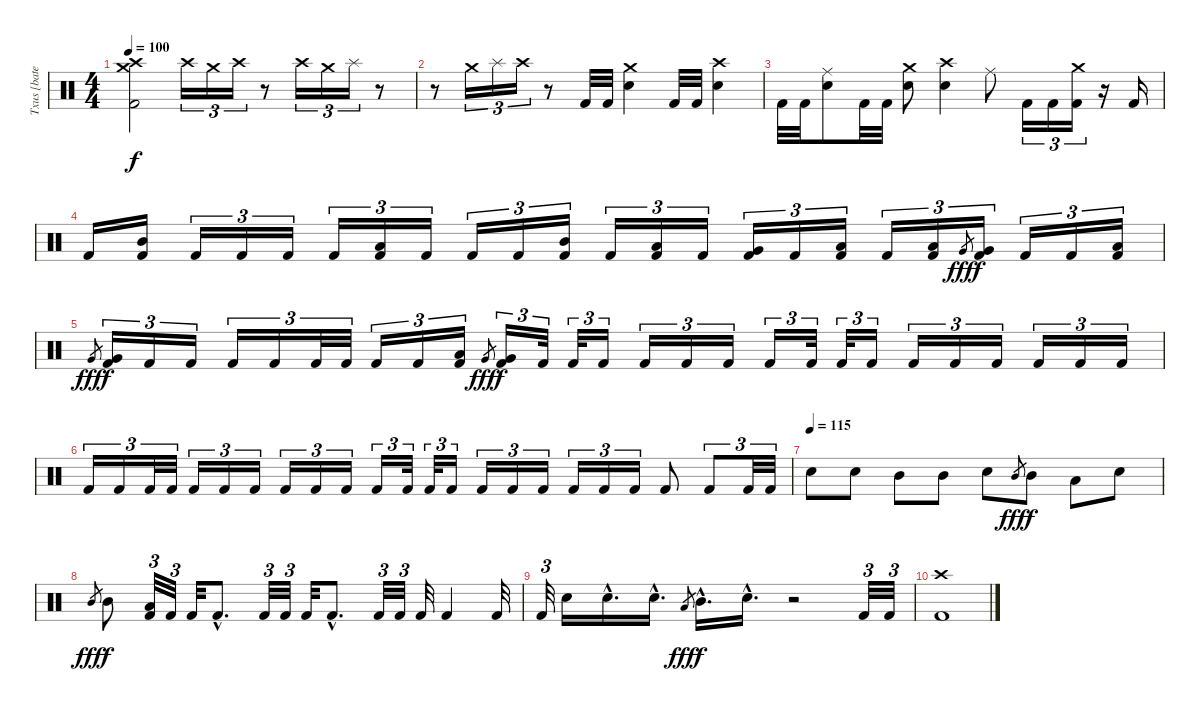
\track ("Txus [bateria]" "Txus [bate") {instrument percussion}
\staff {score}
\articulation defaults
\ts (4 4)
\tempo 100
\clef neutral
\ks c
("Crash medium (hit)" "Crash high (hit)" "Kick (hit) 2").2{dy f} "Crash high (hit)".16{tu (3 2)} "Crash medium (hit)".16{tu (3 2)} "Crash high (hit)".16{tu (3 2)} r.8 "Crash high (hit)".16{tu (3 2)} "Crash medium (hit)".16{tu (3 2)} "Splash (hit)".16{tu (3 2)} r.8 |
r.8 "Crash medium (hit)".16{tu (3 2)} "Splash (hit)".16{tu (3 2)} "Crash high (hit)".16{tu (3 2)} r.8 "Kick (hit) 2".32 "Kick (hit) 2".32 ("Crash medium (hit)" "Snare (hit) 2").4 "Kick (hit) 2".32 "Kick (hit) 2".32 ("Crash high (hit)" "Snare (hit) 2").4 |
"Kick (hit) 2".32 "Kick (hit) 2".32 ("Ride (middle)" "Snare (hit) 2").8 "Kick (hit) 2".32 "Kick (hit) 2".32 ("Crash medium (hit)" "Snare (hit) 2").8 ("Crash high (hit)" "Snare (hit) 2").4 "Ride (middle)".8 "Kick (hit) 2".16{tu (3 2)} "Kick (hit) 2".16{tu (3 2)} ("Crash medium (hit)" "Kick (hit) 2").16{tu (3 2)} r.16 "Kick (hit) 2".16 |
"Kick (hit) 2".16 ("Mid Tom (hit)" "Kick (hit) 2").16 "Kick (hit) 2".16{tu (3 2)} "Kick (hit) 2".16{tu (3 2)} "Kick (hit) 2".16{tu (3 2)} "Kick (hit) 2".16{tu (3 2)} ("Low Tom (hit)" "Kick (hit) 2").16{tu (3 2)} "Kick (hit) 2".16{tu (3 2)} "Kick (hit) 2".16{tu (3 2)} "Kick (hit) 2".16{tu (3 2)} ("Mid Tom (hit)" "Kick (hit) 2").16{tu (3 2)} "Kick (hit) 2".16{tu (3 2)} ("Low Tom (hit)" "Kick (hit) 2").16{tu (3 2)} "Kick (hit) 2".16{tu (3 2)} ("Very Low Tom (hit)" "Kick (hit) 2").16{tu (3 2)} "Kick (hit) 2".16{tu (3 2)} ("Low Floor Tom (hit)" "Kick (hit) 2").16{tu (3 2)} "Kick (hit) 2".16{tu (3 2)} ("Low Floor Tom (hit)" "Kick (hit) 2").16{tu (3 2)} "Very Low Tom (hit)".8{gr dy fff} ("Very Low Tom (hit)" "Kick (hit) 2").16{tu (3 2) dy f} "Kick (hit) 2".16{tu (3 2)} "Kick (hit) 2".16{tu (3 2)} ("Low Tom (hit)" "Kick (hit) 2").16{tu (3 2)} |
"Very Low Tom (hit)".8{gr dy fff} ("Very Low Tom (hit)" "Kick (hit) 2").16{tu (3 2) dy f} "Kick (hit) 2".16{tu (3 2)} "Kick (hit) 2".16{tu (3 2)} "Kick (hit) 2".16{tu (3 2)} "Kick (hit) 2".16{tu (3 2)} "Kick (hit) 2".32{tu (3 2)} "Kick (hit) 2".32{tu (3 2)} "Kick (hit) 2".16{tu (3 2)} "Kick (hit) 2".16{tu (3 2)} ("Low Tom (hit)" "Kick (hit) 2").16{tu (3 2)} "Very Low Tom (hit)".8{gr dy fff} ("Very Low Tom (hit)" "Kick (hit) 2").16{tu (3 2) dy f} "Kick (hit) 2".32{tu (3 2)} "Kick (hit) 2".32{tu (3 2)} "Kick (hit) 2".16{tu (3 2)} "Kick (hit) 2".16{tu (3 2)} "Kick (hit) 2".16{tu (3 2)} "Kick (hit) 2".16{tu (3 2)} "Kick (hit) 2".16{tu (3 2)} "Kick (hit) 2".32{tu (3 2)} "Kick (hit) 2".32{tu (3 2)} "Kick (hit) 2".16{tu (3 2)} "Kick (hit) 2".16{tu (3 2)} "Kick (hit) 2".16{tu (3 2)} "Kick (hit) 2".16{tu (3 2)} "Kick (hit) 2".16{tu (3 2)} "Kick (hit) 2".16{tu (3 2)} "Kick (hit) 2".16{tu (3 2)} |
"Kick (hit) 2".16{tu (3 2)} "Kick (hit) 2".16{tu (3 2)} "Kick (hit) 2".32{tu (3 2)} "Kick (hit) 2".32{tu (3 2)} "Kick (hit) 2".16{tu (3 2)} "Kick (hit) 2".16{tu (3 2)} "Kick (hit) 2".16{tu (3 2)} "Kick (hit) 2".16{tu (3 2)} "Kick (hit) 2".16{tu (3 2)} "Kick (hit) 2".16{tu (3 2)} "Kick (hit) 2".16{tu (3 2)} "Kick (hit) 2".32{tu (3 2)} "Kick (hit) 2".32{tu (3 2)} "Kick (hit) 2".16{tu (3 2)} "Kick (hit) 2".16{tu (3 2)} "Kick (hit) 2".16{tu (3 2)} "Kick (hit) 2".16{tu (3 2)} "Kick (hit) 2".16{tu (3 2)} "Kick (hit) 2".16{tu (3 2)} "Kick (hit) 2".16{tu (3 2)} "Kick (hit) 2".8 "Kick (hit) 2".8{tu (3 2)} "Kick (hit) 2".32{tu (3 2)} "Kick (hit) 2".32{tu (3 2)} |
\tempo (115)
"Snare (hit) 2".8 "Snare (hit) 2".8 "Mid Tom (hit)".8 "Mid Tom (hit)".8 "Snare (hit) 2".8 "Mid Tom (hit)".8{gr dy fff} "Mid Tom (hit)".8{dy f} "Low Tom (hit)".8 "Snare (hit) 2".8 |
"Mid Tom (hit)".8{gr dy fff} "Mid Tom (hit)".8{dy f} ("Low Tom (hit)" "Kick (hit) 2").32{tu (3 2)} "Kick (hit) 2".32{tu (3 2)} "Kick (hit) 2".32 "Kick (hit) 2"{hac}.8{d} "Kick (hit) 2".32{tu (3 2)} "Kick (hit) 2".32{tu (3 2)} "Kick (hit) 2".32 "Kick (hit) 2"{hac}.8{d} "Kick (hit) 2".32{tu (3 2)} "Kick (hit) 2".32{tu (3 2)} "Kick (hit) 2".32 "Kick (hit) 2".4 "Kick (hit) 2".32 |
"Kick (hit) 2".32{tu (3 2)} "Snare (hit) 2".16 "Snare (hit) 2"{hac}.16{d} "Snare (hit) 2"{hac}.16{d} "Low Tom (hit)".8{gr dy fff} "Mid Tom (hit)"{hac}.16{d dy f} "Snare (hit) 2"{hac}.16{d} r.2 "Kick (hit) 2".32{tu (3 2)} "Kick (hit) 2".32{tu (3 2)} |
("Crash high (hit)" "Kick (hit) 2").1
